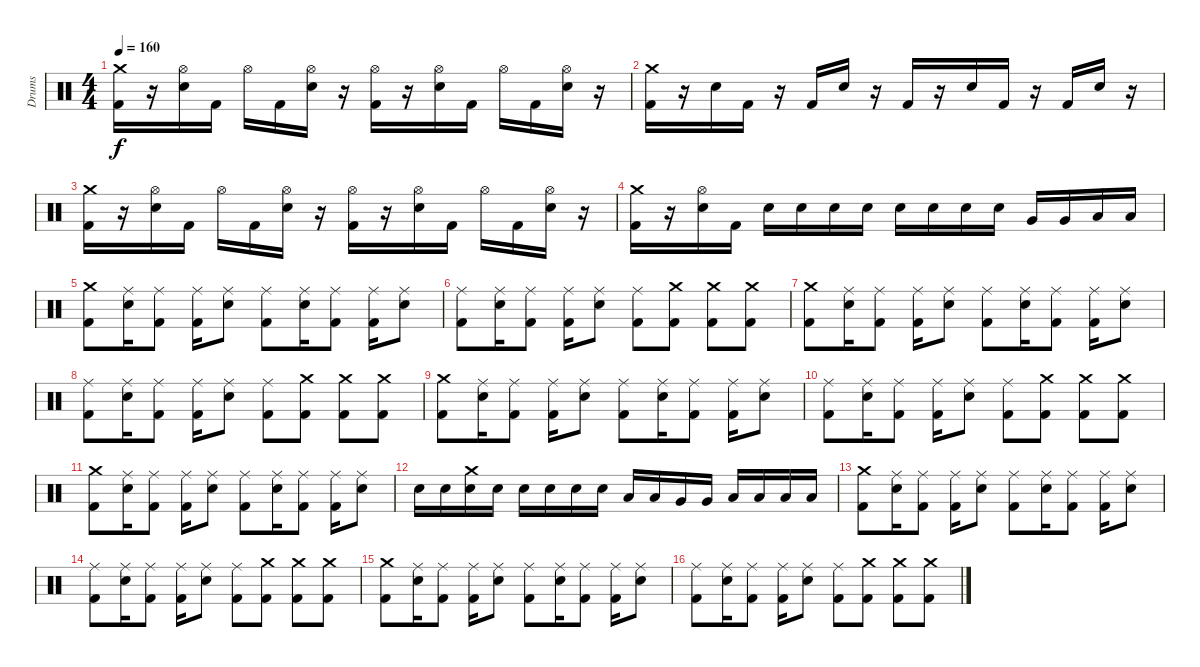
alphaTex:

\track ("Drums" "Drums") {instrument percussion}
\staff {score}
\articulation defaults
\ts (4 4)
\tempo 160
\clef neutral
\ks c
("Crash medium (hit)" "Kick (hit) 2").16{dy f} r.16 ("Snare (hit) 2" "Hi-Hat (open)").16 "Kick (hit) 2".16 "Hi-Hat (open)".16 "Kick (hit) 2".16 ("Snare (hit) 2" "Hi-Hat (open)").16 r.16 ("Hi-Hat (open)" "Kick (hit) 2").16 r.16 ("Snare (hit) 2" "Hi-Hat (open)").16 "Kick (hit) 2".16 "Hi-Hat (open)".16 "Kick (hit) 2".16 ("Snare (hit) 2" "Hi-Hat (open)").16 r.16 |
("Crash medium (hit)" "Kick (hit) 2").16 r.16 "Snare (hit) 2".16 "Kick (hit) 2".16 r.16 "Kick (hit) 2".16 "Snare (hit) 2".16 r.16 "Kick (hit) 2".16 r.16 "Snare (hit) 2".16 "Kick (hit) 2".16 r.16 "Kick (hit) 2".16 "Snare (hit) 2".16 r.16 |
("Crash medium (hit)" "Kick (hit) 2").16 r.16 ("Snare (hit) 2" "Hi-Hat (open)").16 "Kick (hit) 2".16 "Hi-Hat (open)".16 "Kick (hit) 2".16 ("Snare (hit) 2" "Hi-Hat (open)").16 r.16 ("Hi-Hat (open)" "Kick (hit) 2").16 r.16 ("Snare (hit) 2" "Hi-Hat (open)").16 "Kick (hit) 2".16 "Hi-Hat (open)".16 "Kick (hit) 2".16 ("Snare (hit) 2" "Hi-Hat (open)").16 r.16 |
("Crash medium (hit)" "Kick (hit) 2").16 r.16 ("Snare (hit) 2" "Hi-Hat (open)").16 "Kick (hit) 2".16 "Snare (hit) 2".16 "Snare (hit) 2".16 "Snare (hit) 2".16 "Snare (hit) 2".16 "Snare (hit) 2".16 "Snare (hit) 2".16 "Snare (hit) 2".16 "Snare (hit) 2".16 "Very Low Tom (hit)".16 "Very Low Tom (hit)".16 "Low Floor Tom (hit)".16 "Low Floor Tom (hit)".16 |
("Crash medium (hit)" "Kick (hit) 2").8 ("Snare (hit) 2" "Ride (middle)").16 ("Ride (middle)" "Kick (hit) 2").8 ("Ride (middle)" "Kick (hit) 2").16 ("Snare (hit) 2" "Ride (middle)").8 ("Ride (middle)" "Kick (hit) 2").8 ("Snare (hit) 2" "Ride (middle)").16 ("Ride (middle)" "Kick (hit) 2").8 ("Ride (middle)" "Kick (hit) 2").16 ("Snare (hit) 2" "Ride (middle)").8 |
("Ride (middle)" "Kick (hit) 2").8 ("Snare (hit) 2" "Ride (middle)").16 ("Ride (middle)" "Kick (hit) 2").8 ("Ride (middle)" "Kick (hit) 2").16 ("Snare (hit) 2" "Ride (middle)").8 ("Ride (middle)" "Kick (hit) 2").8 ("Crash medium (hit)" "Kick (hit) 2").8 ("Crash medium (hit)" "Kick (hit) 2").8 ("Crash medium (hit)" "Kick (hit) 2").8 |
("Crash medium (hit)" "Kick (hit) 2").8 ("Snare (hit) 2" "Ride (middle)").16 ("Ride (middle)" "Kick (hit) 2").8 ("Ride (middle)" "Kick (hit) 2").16 ("Snare (hit) 2" "Ride (middle)").8 ("Ride (middle)" "Kick (hit) 2").8 ("Snare (hit) 2" "Ride (middle)").16 ("Ride (middle)" "Kick (hit) 2").8 ("Ride (middle)" "Kick (hit) 2").16 ("Snare (hit) 2" "Ride (middle)").8 |
("Ride (middle)" "Kick (hit) 2").8 ("Snare (hit) 2" "Ride (middle)").16 ("Ride (middle)" "Kick (hit) 2").8 ("Ride (middle)" "Kick (hit) 2").16 ("Snare (hit) 2" "Ride (middle)").8 ("Ride (middle)" "Kick (hit) 2").8 ("Crash medium (hit)" "Kick (hit) 2").8 ("Crash medium (hit)" "Kick (hit) 2").8 ("Crash medium (hit)" "Kick (hit) 2").8 |
("Crash medium (hit)" "Kick (hit) 2").8 ("Snare (hit) 2" "Ride (middle)").16 ("Ride (middle)" "Kick (hit) 2").8 ("Ride (middle)" "Kick (hit) 2").16 ("Snare (hit) 2" "Ride (middle)").8 ("Ride (middle)" "Kick (hit) 2").8 ("Snare (hit) 2" "Ride (middle)").16 ("Ride (middle)" "Kick (hit) 2").8 ("Ride (middle)" "Kick (hit) 2").16 ("Snare (hit) 2" "Ride (middle)").8 |
("Ride (middle)" "Kick (hit) 2").8 ("Snare (hit) 2" "Ride (middle)").16 ("Ride (middle)" "Kick (hit) 2").8 ("Ride (middle)" "Kick (hit) 2").16 ("Snare (hit) 2" "Ride (middle)").8 ("Ride (middle)" "Kick (hit) 2").8 ("Crash medium (hit)" "Kick (hit) 2").8 ("Crash medium (hit)" "Kick (hit) 2").8 ("Crash medium (hit)" "Kick (hit) 2").8 |
("Crash medium (hit)" "Kick (hit) 2").8 ("Snare (hit) 2" "Ride (middle)").16 ("Ride (middle)" "Kick (hit) 2").8 ("Ride (middle)" "Kick (hit) 2").16 ("Snare (hit) 2" "Ride (middle)").8 ("Ride (middle)" "Kick (hit) 2").8 ("Snare (hit) 2" "Ride (middle)").16 ("Ride (middle)" "Kick (hit) 2").8 ("Ride (middle)" "Kick (hit) 2").16 ("Snare (hit) 2" "Ride (middle)").8 |
"Snare (hit) 2".16 "Snare (hit) 2".16 ("Snare (hit) 2" "Crash medium (hit)").16 "Snare (hit) 2".16 "Snare (hit) 2".16 "Snare (hit) 2".16 "Snare (hit) 2".16 "Snare (hit) 2".16 "Low Tom (hit)".16 "Low Tom (hit)".16 "Very Low Tom (hit)".16 "Very Low Tom (hit)".16 "Low Tom (hit)".16 "Low Floor Tom (hit)".16 "Low Floor Tom (hit)".16 "Low Floor Tom (hit)".16 |
("Crash medium (hit)" "Kick (hit) 2").8 ("Snare (hit) 2" "Ride (middle)").16 ("Ride (middle)" "Kick (hit) 2").8 ("Ride (middle)" "Kick (hit) 2").16 ("Snare (hit) 2" "Ride (middle)").8 ("Ride (middle)" "Kick (hit) 2").8 ("Snare (hit) 2" "Ride (middle)").16 ("Ride (middle)" "Kick (hit) 2").8 ("Ride (middle)" "Kick (hit) 2").16 ("Snare (hit) 2" "Ride (middle)").8 |
("Ride (middle)" "Kick (hit) 2").8 ("Snare (hit) 2" "Ride (middle)").16 ("Ride (middle)" "Kick (hit) 2").8 ("Ride (middle)" "Kick (hit) 2").16 ("Snare (hit) 2" "Ride (middle)").8 ("Ride (middle)" "Kick (hit) 2").8 ("Crash medium (hit)" "Kick (hit) 2").8 ("Crash medium (hit)" "Kick (hit) 2").8 ("Crash medium (hit)" "Kick (hit) 2").8 |
("Crash medium (hit)" "Kick (hit) 2").8 ("Snare (hit) 2" "Ride (middle)").16 ("Ride (middle)" "Kick (hit) 2").8 ("Ride (middle)" "Kick (hit) 2").16 ("Snare (hit) 2" "Ride (middle)").8 ("Ride (middle)" "Kick (hit) 2").8 ("Snare (hit) 2" "Ride (middle)").16 ("Ride (middle)" "Kick (hit) 2").8 ("Ride (middle)" "Kick (hit) 2").16 ("Snare (hit) 2" "Ride (middle)").8 |
("Ride (middle)" "Kick (hit) 2").8 ("Snare (hit) 2" "Ride (middle)").16 ("Ride (middle)" "Kick (hit) 2").8 ("Ride (middle)" "Kick (hit) 2").16 ("Snare (hit) 2" "Ride (middle)").8 ("Ride (middle)" "Kick (hit) 2").8 ("Crash medium (hit)" "Kick (hit) 2").8 ("Crash medium (hit)" "Kick (hit) 2").8 ("Crash medium (hit)" "Kick (hit) 2").8
